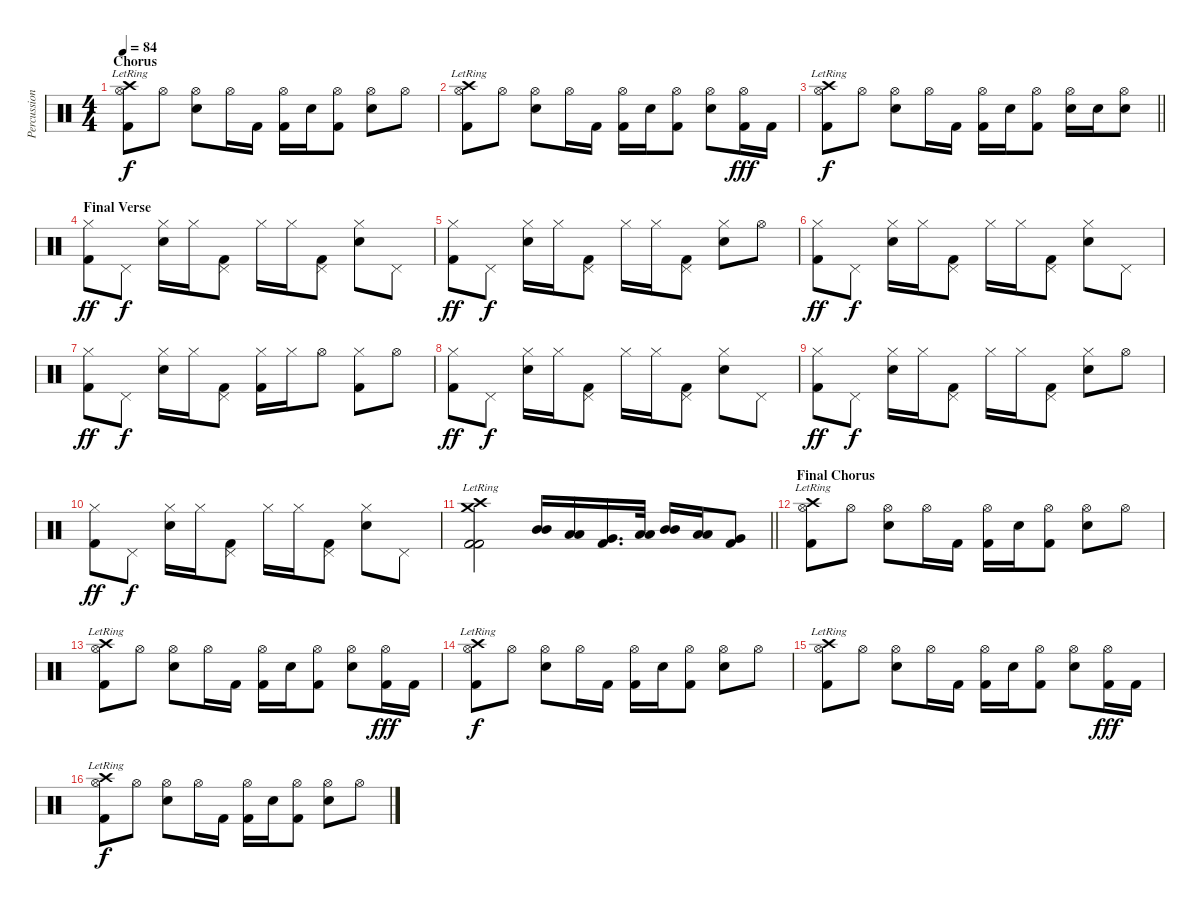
\track ("Percussion" "Percussion") {instrument percussion}
\staff {score}
\articulation defaults
\ts (4 4)
\section ("" "Chorus")
\tempo 84
\clef neutral
\ks c
("Crash high (hit)"{lr} "Hi-Hat (open)" "Kick (hit) 2").8{dy f} "Hi-Hat (open)".8 ("Hi-Hat (open)" "Electric Snare (hit)").8 "Hi-Hat (open)".16 "Kick (hit) 2".16 ("Hi-Hat (open)" "Kick (hit) 2").16 "Electric Snare (hit)".16 ("Hi-Hat (open)" "Kick (hit) 2").8 ("Hi-Hat (open)" "Electric Snare (hit)").8 "Hi-Hat (open)".8 |
("Crash high (hit)"{lr} "Hi-Hat (open)" "Kick (hit) 2").8 "Hi-Hat (open)".8 ("Hi-Hat (open)" "Electric Snare (hit)").8 "Hi-Hat (open)".16 "Kick (hit) 2".16 ("Hi-Hat (open)" "Kick (hit) 2").16 "Electric Snare (hit)".16 ("Hi-Hat (open)" "Kick (hit) 2").8 ("Hi-Hat (open)" "Electric Snare (hit)").8 ("Hi-Hat (open)" "Kick (hit) 2").16{dy fff} "Kick (hit) 2".16 |
\barLineRight lightlight
("Crash high (hit)"{lr} "Hi-Hat (open)" "Kick (hit) 2").8{dy f} "Hi-Hat (open)".8 ("Hi-Hat (open)" "Electric Snare (hit)").8 "Hi-Hat (open)".16 "Kick (hit) 2".16 ("Hi-Hat (open)" "Kick (hit) 2").16 "Electric Snare (hit)".16 ("Hi-Hat (open)" "Kick (hit) 2").8 ("Hi-Hat (open)" "Electric Snare (hit)").16 "Electric Snare (hit)".16 ("Hi-Hat (open)" "Electric Snare (hit)").8 |
\section ("" "Final Verse")
("Hi-Hat (closed)" "Kick (hit) 2").8{dy ff} "Pedal Hi-Hat (hit)".8{dy f} ("Hi-Hat (closed)" "Electric Snare (hit)").16 "Hi-Hat (closed)".16 ("Pedal Hi-Hat (hit)" "Kick (hit) 2").8 "Hi-Hat (closed)".16 "Hi-Hat (closed)".16 ("Pedal Hi-Hat (hit)" "Kick (hit) 2").8 ("Hi-Hat (closed)" "Electric Snare (hit)").8 "Pedal Hi-Hat (hit)".8 |
("Hi-Hat (closed)" "Kick (hit) 2").8{dy ff} "Pedal Hi-Hat (hit)".8{dy f} ("Hi-Hat (closed)" "Electric Snare (hit)").16 "Hi-Hat (closed)".16 ("Pedal Hi-Hat (hit)" "Kick (hit) 2").8 "Hi-Hat (closed)".16 "Hi-Hat (closed)".16 ("Pedal Hi-Hat (hit)" "Kick (hit) 2").8 ("Hi-Hat (closed)" "Electric Snare (hit)").8 "Hi-Hat (open)".8 |
("Hi-Hat (closed)" "Kick (hit) 2").8{dy ff} "Pedal Hi-Hat (hit)".8{dy f} ("Hi-Hat (closed)" "Electric Snare (hit)").16 "Hi-Hat (closed)".16 ("Pedal Hi-Hat (hit)" "Kick (hit) 2").8 "Hi-Hat (closed)".16 "Hi-Hat (closed)".16 ("Pedal Hi-Hat (hit)" "Kick (hit) 2").8 ("Hi-Hat (closed)" "Electric Snare (hit)").8 "Pedal Hi-Hat (hit)".8 |
("Hi-Hat (closed)" "Kick (hit) 2").8{dy ff} "Pedal Hi-Hat (hit)".8{dy f} ("Hi-Hat (closed)" "Electric Snare (hit)").16 "Hi-Hat (closed)".16 ("Pedal Hi-Hat (hit)" "Kick (hit) 2").8 ("Hi-Hat (closed)" "Kick (hit) 2").16 "Hi-Hat (closed)".16 "Hi-Hat (open)".8 ("Hi-Hat (closed)" "Kick (hit) 2").8 "Hi-Hat (open)".8 |
("Hi-Hat (closed)" "Kick (hit) 2").8{dy ff} "Pedal Hi-Hat (hit)".8{dy f} ("Hi-Hat (closed)" "Electric Snare (hit)").16 "Hi-Hat (closed)".16 ("Pedal Hi-Hat (hit)" "Kick (hit) 2").8 "Hi-Hat (closed)".16 "Hi-Hat (closed)".16 ("Pedal Hi-Hat (hit)" "Kick (hit) 2").8 ("Hi-Hat (closed)" "Electric Snare (hit)").8 "Pedal Hi-Hat (hit)".8 |
("Hi-Hat (closed)" "Kick (hit) 2").8{dy ff} "Pedal Hi-Hat (hit)".8{dy f} ("Hi-Hat (closed)" "Electric Snare (hit)").16 "Hi-Hat (closed)".16 ("Pedal Hi-Hat (hit)" "Kick (hit) 2").8 "Hi-Hat (closed)".16 "Hi-Hat (closed)".16 ("Pedal Hi-Hat (hit)" "Kick (hit) 2").8 ("Hi-Hat (closed)" "Electric Snare (hit)").8 "Hi-Hat (open)".8 |
("Hi-Hat (closed)" "Kick (hit) 2").8{dy ff} "Pedal Hi-Hat (hit)".8{dy f} ("Hi-Hat (closed)" "Electric Snare (hit)").16 "Hi-Hat (closed)".16 ("Pedal Hi-Hat (hit)" "Kick (hit) 2").8 "Hi-Hat (closed)".16 "Hi-Hat (closed)".16 ("Pedal Hi-Hat (hit)" "Kick (hit) 2").8 ("Hi-Hat (closed)" "Electric Snare (hit)").8 "Pedal Hi-Hat (hit)".8 |
\barLineRight lightlight
("Crash medium (hit)"{lr} "Crash high (hit)"{lr} "Kick (hit) 2" "Kick (hit) 2").2 ("Mid Tom (hit)" "Mid Tom (hit)").16 ("Low Tom (hit)" "Low Tom (hit)").16 ("Very Low Tom (hit)" "Kick (hit) 2").16{d} ("Low Tom (hit)" "Low Tom (hit)").32 ("Mid Tom (hit)" "Mid Tom (hit)").16 ("Low Tom (hit)" "Low Tom (hit)").16 ("Very Low Tom (hit)" "Kick (hit) 2").8 |
\section ("" "Final Chorus")
("Crash high (hit)"{lr} "Hi-Hat (open)" "Kick (hit) 2").8 "Hi-Hat (open)".8 ("Hi-Hat (open)" "Electric Snare (hit)").8 "Hi-Hat (open)".16 "Kick (hit) 2".16 ("Hi-Hat (open)" "Kick (hit) 2").16 "Electric Snare (hit)".16 ("Hi-Hat (open)" "Kick (hit) 2").8 ("Hi-Hat (open)" "Electric Snare (hit)").8 "Hi-Hat (open)".8 |
("Crash high (hit)"{lr} "Hi-Hat (open)" "Kick (hit) 2").8 "Hi-Hat (open)".8 ("Hi-Hat (open)" "Electric Snare (hit)").8 "Hi-Hat (open)".16 "Kick (hit) 2".16 ("Hi-Hat (open)" "Kick (hit) 2").16 "Electric Snare (hit)".16 ("Hi-Hat (open)" "Kick (hit) 2").8 ("Hi-Hat (open)" "Electric Snare (hit)").8 ("Hi-Hat (open)" "Kick (hit) 2").16{dy fff} "Kick (hit) 2".16 |
("Crash high (hit)"{lr} "Hi-Hat (open)" "Kick (hit) 2").8{dy f} "Hi-Hat (open)".8 ("Hi-Hat (open)" "Electric Snare (hit)").8 "Hi-Hat (open)".16 "Kick (hit) 2".16 ("Hi-Hat (open)" "Kick (hit) 2").16 "Electric Snare (hit)".16 ("Hi-Hat (open)" "Kick (hit) 2").8 ("Hi-Hat (open)" "Electric Snare (hit)").8 "Hi-Hat (open)".8 |
("Crash high (hit)"{lr} "Hi-Hat (open)" "Kick (hit) 2").8 "Hi-Hat (open)".8 ("Hi-Hat (open)" "Electric Snare (hit)").8 "Hi-Hat (open)".16 "Kick (hit) 2".16 ("Hi-Hat (open)" "Kick (hit) 2").16 "Electric Snare (hit)".16 ("Hi-Hat (open)" "Kick (hit) 2").8 ("Hi-Hat (open)" "Electric Snare (hit)").8 ("Hi-Hat (open)" "Kick (hit) 2").16{dy fff} "Kick (hit) 2".16 |
("Crash high (hit)"{lr} "Hi-Hat (open)" "Kick (hit) 2").8{dy f} "Hi-Hat (open)".8 ("Hi-Hat (open)" "Electric Snare (hit)").8 "Hi-Hat (open)".16 "Kick (hit) 2".16 ("Hi-Hat (open)" "Kick (hit) 2").16 "Electric Snare (hit)".16 ("Hi-Hat (open)" "Kick (hit) 2").8 ("Hi-Hat (open)" "Electric Snare (hit)").8 "Hi-Hat (open)".8
